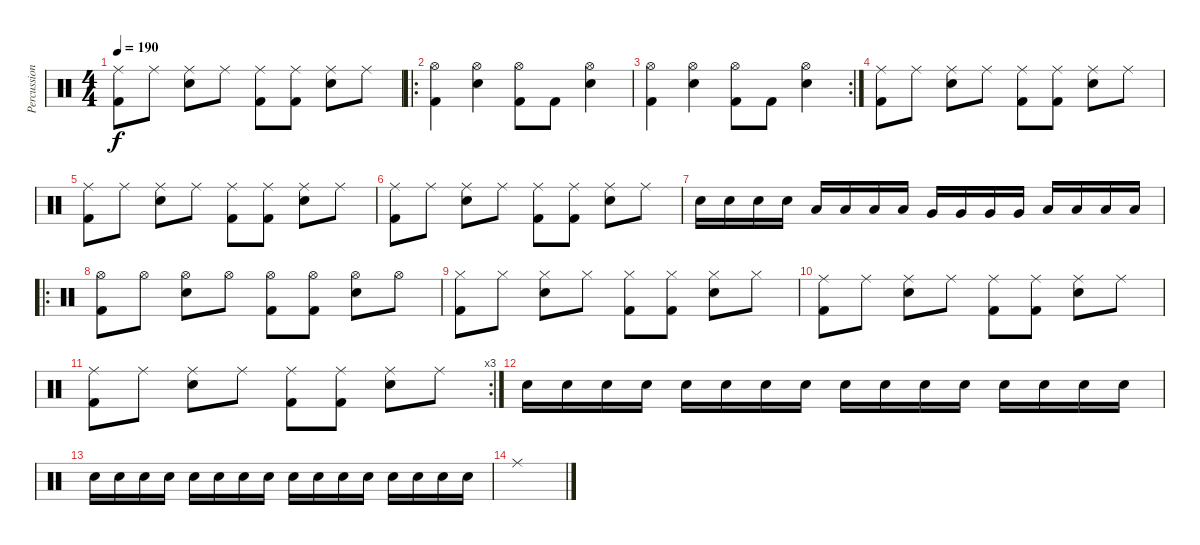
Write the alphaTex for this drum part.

\track ("Percussion" "Percussion") {instrument percussion}
\staff {score}
\articulation defaults
\ts (4 4)
\tempo 190
\clef neutral
\ks c
("Ride (middle)" "Kick (hit) 2").8{dy f} "Ride (middle)".8 ("Ride (middle)" "Electric Snare (hit)").8 "Ride (middle)".8 ("Ride (middle)" "Kick (hit) 2").8 ("Ride (middle)" "Kick (hit) 2").8 ("Ride (middle)" "Electric Snare (hit)").8 "Ride (middle)".8 |
\ro
("Hi-Hat (open)" "Kick (hit) 2").4 ("Hi-Hat (open)" "Electric Snare (hit)").4 ("Hi-Hat (open)" "Kick (hit) 2").8 "Kick (hit) 2".8 ("Hi-Hat (open)" "Electric Snare (hit)").4 |
\rc 2
("Hi-Hat (open)" "Kick (hit) 2").4 ("Hi-Hat (open)" "Electric Snare (hit)").4 ("Hi-Hat (open)" "Kick (hit) 2").8 "Kick (hit) 2".8 ("Hi-Hat (open)" "Electric Snare (hit)").4 |
("Ride (middle)" "Kick (hit) 2").8 "Ride (middle)".8 ("Ride (middle)" "Electric Snare (hit)").8 "Ride (middle)".8 ("Ride (middle)" "Kick (hit) 2").8 ("Ride (middle)" "Kick (hit) 2").8 ("Ride (middle)" "Electric Snare (hit)").8 "Ride (middle)".8 |
("Ride (middle)" "Kick (hit) 2").8 "Ride (middle)".8 ("Ride (middle)" "Electric Snare (hit)").8 "Ride (middle)".8 ("Ride (middle)" "Kick (hit) 2").8 ("Ride (middle)" "Kick (hit) 2").8 ("Ride (middle)" "Electric Snare (hit)").8 "Ride (middle)".8 |
("Ride (middle)" "Kick (hit) 2").8 "Ride (middle)".8 ("Ride (middle)" "Electric Snare (hit)").8 "Ride (middle)".8 ("Ride (middle)" "Kick (hit) 2").8 ("Ride (middle)" "Kick (hit) 2").8 ("Ride (middle)" "Electric Snare (hit)").8 "Ride (middle)".8 |
"Electric Snare (hit)".16 "Electric Snare (hit)".16 "Electric Snare (hit)".16 "Electric Snare (hit)".16 "Low Tom (hit)".16 "Low Tom (hit)".16 "Low Tom (hit)".16 "Low Tom (hit)".16 "Very Low Tom (hit)".16 "Very Low Tom (hit)".16 "Very Low Tom (hit)".16 "Very Low Tom (hit)".16 "Low Floor Tom (hit)".16 "Low Floor Tom (hit)".16 "Low Floor Tom (hit)".16 "Low Floor Tom (hit)".16 |
\ro
("Hi-Hat (open)" "Kick (hit) 2").8 "Hi-Hat (open)".8 ("Hi-Hat (open)" "Electric Snare (hit)").8 "Hi-Hat (open)".8 ("Hi-Hat (open)" "Kick (hit) 2").8 ("Hi-Hat (open)" "Kick (hit) 2").8 ("Hi-Hat (open)" "Electric Snare (hit)").8 "Hi-Hat (open)".8 |
("Hi-Hat (closed)" "Kick (hit) 2").8 "Hi-Hat (closed)".8 ("Hi-Hat (closed)" "Electric Snare (hit)").8 "Hi-Hat (closed)".8 ("Hi-Hat (closed)" "Kick (hit) 2").8 ("Hi-Hat (closed)" "Kick (hit) 2").8 ("Hi-Hat (closed)" "Electric Snare (hit)").8 "Hi-Hat (closed)".8 |
("Ride (middle)" "Kick (hit) 2").8 "Ride (middle)".8 ("Ride (middle)" "Electric Snare (hit)").8 "Ride (middle)".8 ("Ride (middle)" "Kick (hit) 2").8 ("Ride (middle)" "Kick (hit) 2").8 ("Ride (middle)" "Electric Snare (hit)").8 "Ride (middle)".8 |
\rc 3
("Ride (middle)" "Kick (hit) 2").8 "Ride (middle)".8 ("Ride (middle)" "Electric Snare (hit)").8 "Ride (middle)".8 ("Ride (middle)" "Kick (hit) 2").8 ("Ride (middle)" "Kick (hit) 2").8 ("Ride (middle)" "Electric Snare (hit)").8 "Ride (middle)".8 |
"Electric Snare (hit)".16 "Electric Snare (hit)".16 "Electric Snare (hit)".16 "Electric Snare (hit)".16 "Electric Snare (hit)".16 "Electric Snare (hit)".16 "Electric Snare (hit)".16 "Electric Snare (hit)".16 "Electric Snare (hit)".16 "Electric Snare (hit)".16 "Electric Snare (hit)".16 "Electric Snare (hit)".16 "Electric Snare (hit)".16 "Electric Snare (hit)".16 "Electric Snare (hit)".16 "Electric Snare (hit)".16 |
"Electric Snare (hit)".16 "Electric Snare (hit)".16 "Electric Snare (hit)".16 "Electric Snare (hit)".16 "Electric Snare (hit)".16 "Electric Snare (hit)".16 "Electric Snare (hit)".16 "Electric Snare (hit)".16 "Electric Snare (hit)".16 "Electric Snare (hit)".16 "Electric Snare (hit)".16 "Electric Snare (hit)".16 "Electric Snare (hit)".16 "Electric Snare (hit)".16 "Electric Snare (hit)".16 "Electric Snare (hit)".16 |
"Ride (middle)".1
